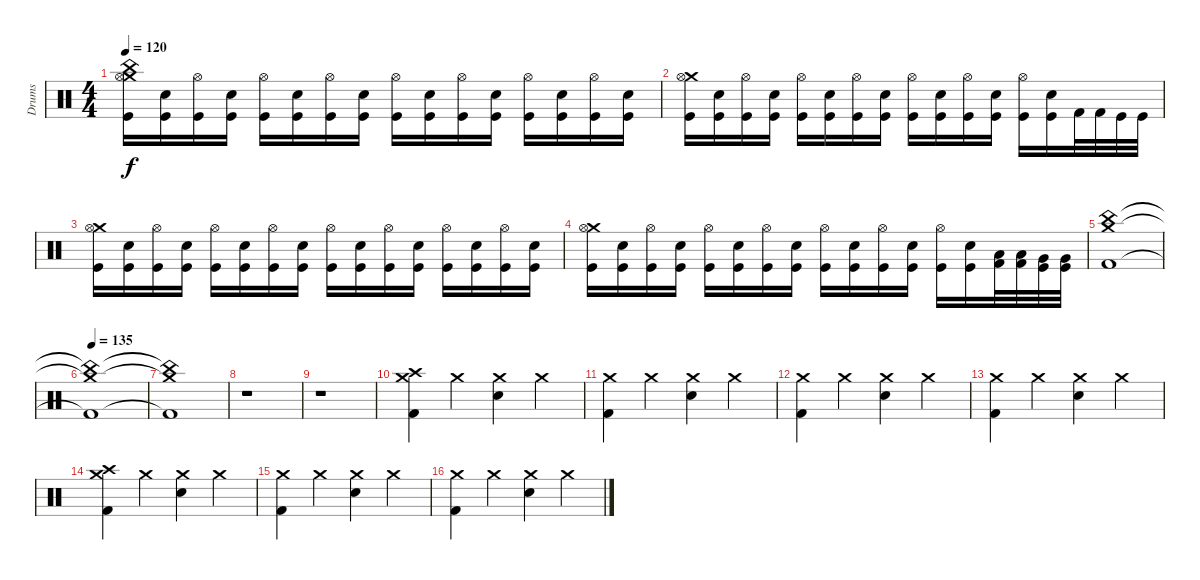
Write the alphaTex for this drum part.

\track ("Drums" "Drums") {instrument percussion}
\staff {score}
\articulation defaults
\ts (4 4)
\tempo 120
\clef neutral
\ks c
("China (hit)" "Crash medium (hit)" "Hi-Hat (open)" "Kick (hit)").16{dy f} ("Electric Snare (hit)" "Kick (hit)").16 ("Hi-Hat (open)" "Kick (hit)").16 ("Electric Snare (hit)" "Kick (hit)").16 ("Hi-Hat (open)" "Kick (hit)").16 ("Electric Snare (hit)" "Kick (hit)").16 ("Hi-Hat (open)" "Kick (hit)").16 ("Electric Snare (hit)" "Kick (hit)").16 ("Hi-Hat (open)" "Kick (hit)").16 ("Electric Snare (hit)" "Kick (hit)").16 ("Hi-Hat (open)" "Kick (hit)").16 ("Electric Snare (hit)" "Kick (hit)").16 ("Hi-Hat (open)" "Kick (hit)").16 ("Electric Snare (hit)" "Kick (hit)").16 ("Hi-Hat (open)" "Kick (hit)").16 ("Electric Snare (hit)" "Kick (hit)").16 |
("Crash medium (hit)" "Hi-Hat (open)" "Kick (hit)").16 ("Electric Snare (hit)" "Kick (hit)").16 ("Hi-Hat (open)" "Kick (hit)").16 ("Electric Snare (hit)" "Kick (hit)").16 ("Hi-Hat (open)" "Kick (hit)").16 ("Electric Snare (hit)" "Kick (hit)").16 ("Hi-Hat (open)" "Kick (hit)").16 ("Electric Snare (hit)" "Kick (hit)").16 ("Hi-Hat (open)" "Kick (hit)").16 ("Electric Snare (hit)" "Kick (hit)").16 ("Hi-Hat (open)" "Kick (hit)").16 ("Electric Snare (hit)" "Kick (hit)").16 ("Hi-Hat (open)" "Kick (hit)").16 ("Electric Snare (hit)" "Kick (hit)").16 "Kick (hit) 2".32 "Kick (hit) 2".32 "Kick (hit)".32 "Kick (hit)".32 |
("Crash medium (hit)" "Hi-Hat (open)" "Kick (hit)").16 ("Electric Snare (hit)" "Kick (hit)").16 ("Hi-Hat (open)" "Kick (hit)").16 ("Electric Snare (hit)" "Kick (hit)").16 ("Hi-Hat (open)" "Kick (hit)").16 ("Electric Snare (hit)" "Kick (hit)").16 ("Hi-Hat (open)" "Kick (hit)").16 ("Electric Snare (hit)" "Kick (hit)").16 ("Hi-Hat (open)" "Kick (hit)").16 ("Electric Snare (hit)" "Kick (hit)").16 ("Hi-Hat (open)" "Kick (hit)").16 ("Electric Snare (hit)" "Kick (hit)").16 ("Hi-Hat (open)" "Kick (hit)").16 ("Electric Snare (hit)" "Kick (hit)").16 ("Hi-Hat (open)" "Kick (hit)").16 ("Electric Snare (hit)" "Kick (hit)").16 |
("Crash medium (hit)" "Hi-Hat (open)" "Kick (hit)").16 ("Electric Snare (hit)" "Kick (hit)").16 ("Hi-Hat (open)" "Kick (hit)").16 ("Electric Snare (hit)" "Kick (hit)").16 ("Hi-Hat (open)" "Kick (hit)").16 ("Electric Snare (hit)" "Kick (hit)").16 ("Hi-Hat (open)" "Kick (hit)").16 ("Electric Snare (hit)" "Kick (hit)").16 ("Hi-Hat (open)" "Kick (hit)").16 ("Electric Snare (hit)" "Kick (hit)").16 ("Hi-Hat (open)" "Kick (hit)").16 ("Electric Snare (hit)" "Kick (hit)").16 ("Hi-Hat (open)" "Kick (hit)").16 ("Electric Snare (hit)" "Kick (hit)").16 ("Low Tom (hit)" "Kick (hit) 2").32 ("Low Tom (hit)" "Kick (hit) 2").32 ("Very Low Tom (hit)" "Kick (hit)").32 ("Very Low Tom (hit)" "Kick (hit)").32 |
("China (hit)" "Crash medium (hit)" "Kick (hit) 2").1 |
\tempo 135
("China (hit)"{t} "Crash medium (hit)"{t} "Kick (hit) 2"{t}).1 |
("China (hit)"{t} "Crash medium (hit)"{t} "Kick (hit) 2"{t}).1 |
r.1 |
r.1 |
("Crash high (hit)" "Crash medium (hit)" "Kick (hit) 2").4 "Crash medium (hit)".4 ("Crash medium (hit)" "Electric Snare (hit)").4 "Crash medium (hit)".4 |
("Crash medium (hit)" "Kick (hit) 2").4 "Crash medium (hit)".4 ("Crash medium (hit)" "Electric Snare (hit)").4 "Crash medium (hit)".4 |
("Crash medium (hit)" "Kick (hit) 2").4 "Crash medium (hit)".4 ("Crash medium (hit)" "Electric Snare (hit)").4 "Crash medium (hit)".4 |
("Crash medium (hit)" "Kick (hit) 2").4 "Crash medium (hit)".4 ("Crash medium (hit)" "Electric Snare (hit)").4 "Crash medium (hit)".4 |
("Crash high (hit)" "Crash medium (hit)" "Kick (hit) 2").4 "Crash medium (hit)".4 ("Crash medium (hit)" "Electric Snare (hit)").4 "Crash medium (hit)".4 |
("Crash medium (hit)" "Kick (hit) 2").4 "Crash medium (hit)".4 ("Crash medium (hit)" "Electric Snare (hit)").4 "Crash medium (hit)".4 |
("Crash medium (hit)" "Kick (hit) 2").4 "Crash medium (hit)".4 ("Crash medium (hit)" "Electric Snare (hit)").4 "Crash medium (hit)".4
